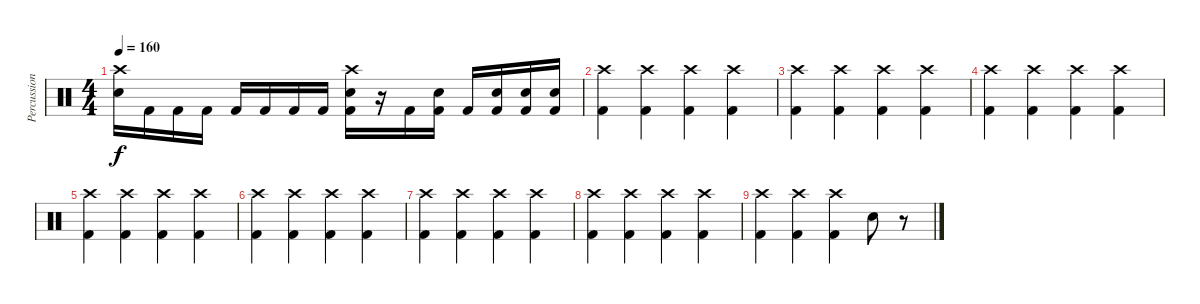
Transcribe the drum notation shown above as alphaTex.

\track ("Percussions" "Percussion") {instrument percussion}
\staff {score}
\articulation defaults
\ts (4 4)
\tempo 160
\clef neutral
\ks c
("Crash high (hit)" "Electric Snare (hit)").16{dy f} "Kick (hit) 2".16 "Kick (hit) 2".16 "Kick (hit) 2".16 "Kick (hit) 2".16 "Kick (hit) 2".16 "Kick (hit) 2".16 "Kick (hit) 2".16 ("Crash high (hit)" "Electric Snare (hit)" "Kick (hit) 2").16 r.16 "Kick (hit) 2".16 ("Electric Snare (hit)" "Kick (hit) 2").16 "Kick (hit) 2".16 ("Electric Snare (hit)" "Kick (hit) 2").16 ("Electric Snare (hit)" "Kick (hit) 2").16 ("Electric Snare (hit)" "Kick (hit) 2").16 |
("Crash high (hit)" "Kick (hit) 2").4 ("Crash high (hit)" "Kick (hit) 2").4 ("Crash high (hit)" "Kick (hit) 2").4 ("Crash high (hit)" "Kick (hit) 2").4 |
("Crash high (hit)" "Kick (hit) 2").4 ("Crash high (hit)" "Kick (hit) 2").4 ("Crash high (hit)" "Kick (hit) 2").4 ("Crash high (hit)" "Kick (hit) 2").4 |
("Crash high (hit)" "Kick (hit) 2").4 ("Crash high (hit)" "Kick (hit) 2").4 ("Crash high (hit)" "Kick (hit) 2").4 ("Crash high (hit)" "Kick (hit) 2").4 |
("Crash high (hit)" "Kick (hit) 2").4 ("Crash high (hit)" "Kick (hit) 2").4 ("Crash high (hit)" "Kick (hit) 2").4 ("Crash high (hit)" "Kick (hit) 2").4 |
("Crash high (hit)" "Kick (hit) 2").4 ("Crash high (hit)" "Kick (hit) 2").4 ("Crash high (hit)" "Kick (hit) 2").4 ("Crash high (hit)" "Kick (hit) 2").4 |
("Crash high (hit)" "Kick (hit) 2").4 ("Crash high (hit)" "Kick (hit) 2").4 ("Crash high (hit)" "Kick (hit) 2").4 ("Crash high (hit)" "Kick (hit) 2").4 |
("Crash high (hit)" "Kick (hit) 2").4 ("Crash high (hit)" "Kick (hit) 2").4 ("Crash high (hit)" "Kick (hit) 2").4 ("Crash high (hit)" "Kick (hit) 2").4 |
("Crash high (hit)" "Kick (hit) 2").4 ("Crash high (hit)" "Kick (hit) 2").4 ("Crash high (hit)" "Kick (hit) 2").4 "Electric Snare (hit)".8 r.8
